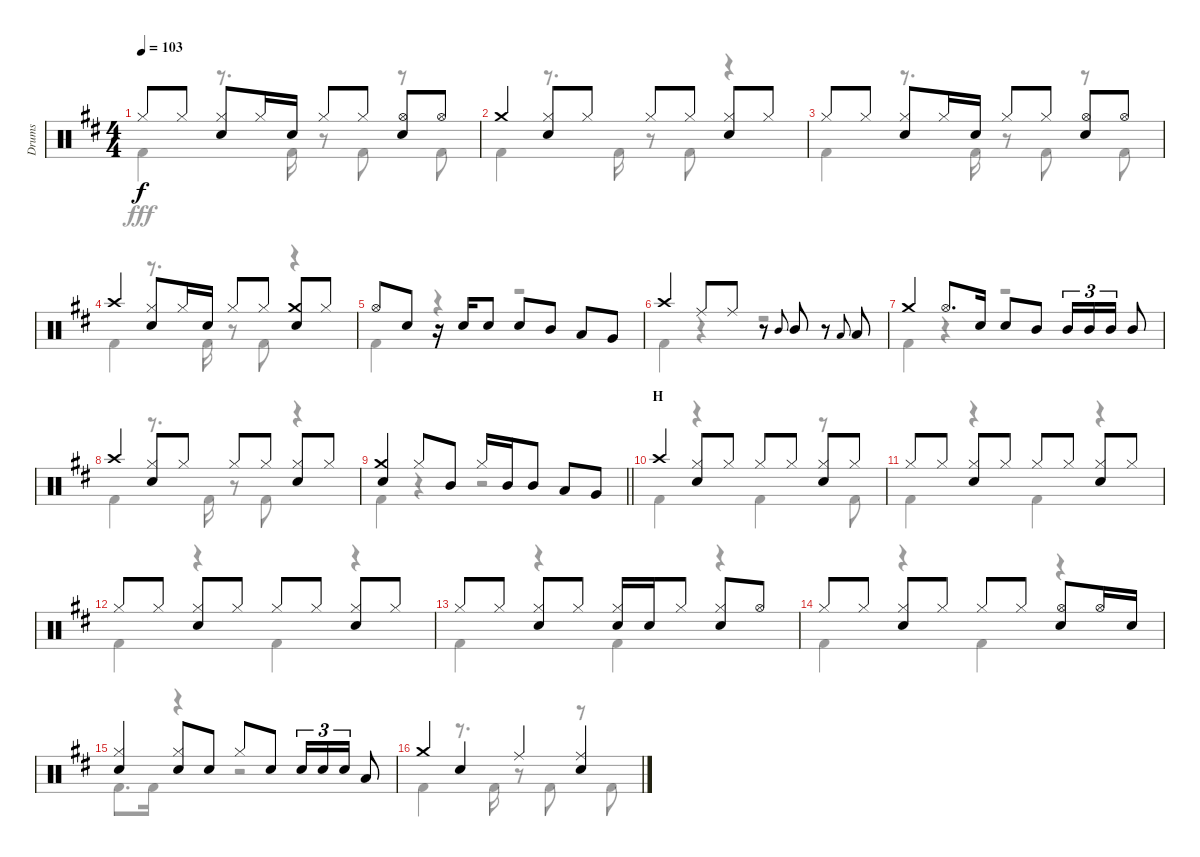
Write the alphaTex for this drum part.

\track ("Drums" "Drums") {instrument percussion}
\staff {score}
\articulation defaults
\voice
\ts (4 4)
\tempo 103
\clef neutral
\ks d "Hi-Hat (closed)".8{dy f} "Hi-Hat (closed)".8
("Hi-Hat (closed)" "Snare (hit) 2").8 "Hi-Hat (closed)".16 "Snare (hit) 2".16 "Hi-Hat (closed)".8 "Hi-Hat (closed)".8 ("Hi-Hat (open)" "Snare (hit) 2").8 "Hi-Hat (open)".8 |
"Crash medium (hit)".4 ("Hi-Hat (closed)" "Snare (hit) 2").8 "Hi-Hat (closed)".8 "Hi-Hat (closed)".8 "Hi-Hat (closed)".8 ("Hi-Hat (closed)" "Snare (hit) 2").8 "Hi-Hat (closed)".8 |
"Hi-Hat (closed)".8 "Hi-Hat (closed)".8 ("Hi-Hat (closed)" "Snare (hit) 2").8 "Hi-Hat (closed)".16 "Snare (hit) 2".16 "Hi-Hat (closed)".8 "Hi-Hat (closed)".8 ("Hi-Hat (open)" "Snare (hit) 2").8 "Hi-Hat (open)".8 |
"Crash high (hit)".4 ("Hi-Hat (closed)" "Snare (hit) 2").8 "Hi-Hat (closed)".16 "Snare (hit) 2".16 "Hi-Hat (closed)".8 "Hi-Hat (closed)".8 ("Crash medium (hit)" "Snare (hit) 2").8 "Hi-Hat (closed)".8 |
"Hi-Hat (open)".8 "Snare (hit) 2".8 r.16 "Snare (hit) 2".16 "Snare (hit) 2".8 "Snare (hit) 2".8 "Mid Tom (hit)".8 "Low Tom (hit)".8 "Very Low Tom (hit)".8 |
"Crash high (hit)".4 "Ride (middle)".8 "Ride (middle)".8 r.8 "Mid Tom (hit)".8{gr onbeat} "Mid Tom (hit)".8 r.8 "Low Tom (hit)".8{gr onbeat} "Low Tom (hit)".8 |
"Crash medium (hit)".4 "Hi-Hat (open)".8{d} "Snare (hit) 2".16 "Snare (hit) 2".8 "Mid Tom (hit)".8 "Mid Tom (hit)".16{tu (3 2)} "Mid Tom (hit)".16{tu (3 2)} "Mid Tom (hit)".16{tu (3 2)} "Mid Tom (hit)".8 |
"Crash high (hit)".4 ("Hi-Hat (closed)" "Snare (hit) 2").8 "Hi-Hat (closed)".8 "Hi-Hat (closed)".8 "Hi-Hat (closed)".8 ("Hi-Hat (closed)" "Snare (hit) 2").8 "Hi-Hat (closed)".8 |
\barLineRight lightlight
("Crash medium (hit)" "Snare (hit) 2").4 "Hi-Hat (closed)".8 "Mid Tom (hit)".8 "Hi-Hat (closed)".16 "Mid Tom (hit)".16 "Mid Tom (hit)".8 "Low Tom (hit)".8 "Very Low Tom (hit)".8 |
\section ("" "H")
"Crash high (hit)".4 ("Hi-Hat (closed)" "Snare (hit) 2").8 "Hi-Hat (closed)".8 "Hi-Hat (closed)".8 "Hi-Hat (closed)".8 ("Hi-Hat (closed)" "Snare (hit) 2").8 "Hi-Hat (closed)".8 |
"Hi-Hat (closed)".8 "Hi-Hat (closed)".8 ("Hi-Hat (closed)" "Snare (hit) 2").8 "Hi-Hat (closed)".8 "Hi-Hat (closed)".8 "Hi-Hat (closed)".8 ("Hi-Hat (closed)" "Snare (hit) 2").8 "Hi-Hat (closed)".8 |
"Hi-Hat (closed)".8 "Hi-Hat (closed)".8 ("Hi-Hat (closed)" "Snare (hit) 2").8 "Hi-Hat (closed)".8 "Hi-Hat (closed)".8 "Hi-Hat (closed)".8 ("Hi-Hat (closed)" "Snare (hit) 2").8 "Hi-Hat (closed)".8 |
"Hi-Hat (closed)".8 "Hi-Hat (closed)".8 ("Hi-Hat (closed)" "Snare (hit) 2").8 "Hi-Hat (closed)".8 ("Hi-Hat (closed)" "Snare (hit) 2").16 "Snare (hit) 2".16 "Hi-Hat (closed)".8 ("Hi-Hat (closed)" "Snare (hit) 2").8 "Hi-Hat (open)".8 |
"Hi-Hat (closed)".8 "Hi-Hat (closed)".8 ("Hi-Hat (closed)" "Snare (hit) 2").8 "Hi-Hat (closed)".8 "Hi-Hat (closed)".8 "Hi-Hat (closed)".8 ("Hi-Hat (open)" "Snare (hit) 2").8 "Hi-Hat (open)".16 "Snare (hit) 2".16 |
("Hi-Hat (closed)" "Snare (hit) 2").4 ("Hi-Hat (closed)" "Snare (hit) 2").8 "Snare (hit) 2".8 "Hi-Hat (closed)".8 "Snare (hit) 2".8 "Snare (hit) 2".16{tu (3 2)} "Snare (hit) 2".16{tu (3 2)} "Snare (hit) 2".16{tu (3 2)} "Low Tom (hit)".8 |
"Crash medium (hit)".4 "Snare (hit) 2".4 "Ride (middle)".4 ("Ride (middle)" "Snare (hit) 2").4
\voice
\clef neutral
\ottava regular
\simile none
\ks d "Kick (hit) 2".4{dy fff}
r.8{d} "Kick (hit) 2".16 r.8 "Kick (hit) 2".8 r.8 "Kick (hit) 2".8 |
"Kick (hit) 2".4 r.8{d} "Kick (hit) 2".16 r.8 "Kick (hit) 2".8 r.4 |
"Kick (hit) 2".4 r.8{d} "Kick (hit) 2".16 r.8 "Kick (hit) 2".8 r.8 "Kick (hit) 2".8 |
"Kick (hit) 2".4 r.8{d} "Kick (hit) 2".16 r.8 "Kick (hit) 2".8 r.4 |
"Kick (hit) 2".4 r.4 r.2 |
"Kick (hit) 2".4 r.4 r.2 |
"Kick (hit) 2".4 r.4 r.2 |
"Kick (hit) 2".4 r.8{d} "Kick (hit) 2".16 r.8 "Kick (hit) 2".8 r.4 |
\barLineRight lightlight "Kick (hit) 2".4
r.4 r.2 |
"Kick (hit) 2".4 r.4 "Kick (hit) 2".4 r.8 "Kick (hit) 2".8 |
"Kick (hit) 2".4 r.4 "Kick (hit) 2".4 r.4 |
"Kick (hit) 2".4 r.4 "Kick (hit) 2".4 r.4 |
"Kick (hit) 2".4 r.4 "Kick (hit) 2".4 r.4 |
"Kick (hit) 2".4 r.4 "Kick (hit) 2".4 r.4 |
"Kick (hit) 2".8{d} "Kick (hit) 2".16 r.4 r.2 |
"Kick (hit) 2".4 r.8{d} "Kick (hit) 2".16 r.8 "Kick (hit) 2".8 r.8 "Kick (hit) 2".8
